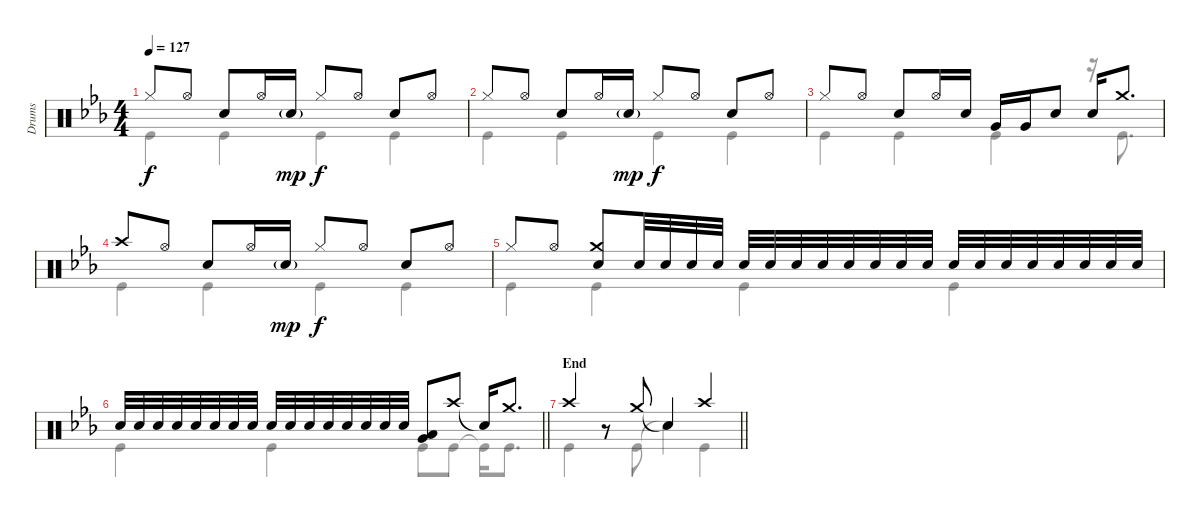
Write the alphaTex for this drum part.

\track ("Drums" "Drums") {instrument percussion}
\staff {score}
\articulation defaults
\voice
\ts (4 4)
\tempo 127
\clef neutral
\ks eb "Hi-Hat (closed)".8{dy f} "Hi-Hat (open)".8 "Snare (hit) 2".8 "Hi-Hat (open)".16 "Snare (hit) 2"{g}.16{dy mp} "Hi-Hat (closed)".8{dy f} "Hi-Hat (open)".8 "Snare (hit) 2".8 "Hi-Hat (open)".8
|
"Hi-Hat (closed)".8 "Hi-Hat (open)".8 "Snare (hit) 2".8 "Hi-Hat (open)".16 "Snare (hit) 2"{g}.16{dy mp} "Hi-Hat (closed)".8{dy f} "Hi-Hat (open)".8 "Snare (hit) 2".8 "Hi-Hat (open)".8 |
"Hi-Hat (closed)".8 "Hi-Hat (open)".8 "Snare (hit) 2".8 "Hi-Hat (open)".16 "Snare (hit) 2".16 "Very Low Tom (hit)".16 "Very Low Tom (hit)".16 "Snare (hit) 2".8 "Snare (hit) 2".16 "Crash medium (hit)".8{d} |
"Crash high (hit)".8 "Hi-Hat (open)".8 "Snare (hit) 2".8 "Hi-Hat (open)".16 "Snare (hit) 2"{g}.16{dy mp} "Hi-Hat (closed)".8{dy f} "Hi-Hat (open)".8 "Snare (hit) 2".8 "Hi-Hat (open)".8 |
"Hi-Hat (closed)".8 "Hi-Hat (open)".8 ("Crash medium (hit)" "Snare (hit) 2").8 "Snare (hit) 2".32 "Snare (hit) 2".32 "Snare (hit) 2".32 "Snare (hit) 2".32 "Snare (hit) 2".32 "Snare (hit) 2".32 "Snare (hit) 2".32 "Snare (hit) 2".32 "Snare (hit) 2".32 "Snare (hit) 2".32 "Snare (hit) 2".32 "Snare (hit) 2".32 "Snare (hit) 2".32 "Snare (hit) 2".32 "Snare (hit) 2".32 "Snare (hit) 2".32 "Snare (hit) 2".32 "Snare (hit) 2".32 "Snare (hit) 2".32 "Snare (hit) 2".32 |
\barLineRight lightlight "Snare (hit) 2".32 "Snare (hit) 2".32 "Snare (hit) 2".32 "Snare (hit) 2".32 "Snare (hit) 2".32 "Snare (hit) 2".32 "Snare (hit) 2".32 "Snare (hit) 2".32 "Snare (hit) 2".32 "Snare (hit) 2".32 "Snare (hit) 2".32 "Snare (hit) 2".32 "Snare (hit) 2".32 "Snare (hit) 2".32 "Snare (hit) 2".32 "Snare (hit) 2".32
("Low Tom (hit)" "Very Low Tom (hit)").8 "Crash high (hit)".8 "Snare (hit)"{t}.16 "Crash medium (hit)".8{d} |
\section ("" "End")
\barLineRight lightlight "Crash high (hit)".4
r.8 "Crash medium (hit)".8 "Snare (hit)"{t}.4 "Crash high (hit)".4
\voice
\clef neutral
\ottava regular
\simile none
\ks eb "Kick (hit)".4{dy f} "Kick (hit)".4 "Kick (hit)".4 "Kick (hit)".4
|
"Kick (hit)".4 "Kick (hit)".4 "Kick (hit)".4 "Kick (hit)".4 |
"Kick (hit)".4 "Kick (hit)".4 "Kick (hit)".4 r.16 "Kick (hit)".8{d} |
"Kick (hit)".4 "Kick (hit)".4 "Kick (hit)".4 "Kick (hit)".4 |
"Kick (hit)".4 "Kick (hit)".4 "Kick (hit)".4 "Kick (hit)".4 |
\barLineRight lightlight "Kick (hit)".4 "Kick (hit)".4 "Kick (hit)".8 "Kick (hit)".8 "Kick (hit)"{t}.16 "Kick (hit)".8{d}
|
\barLineRight lightlight "Kick (hit)".4
r.8 "Kick (hit)".8 "Snare (hit)"{t}.4 "Kick (hit)".4
